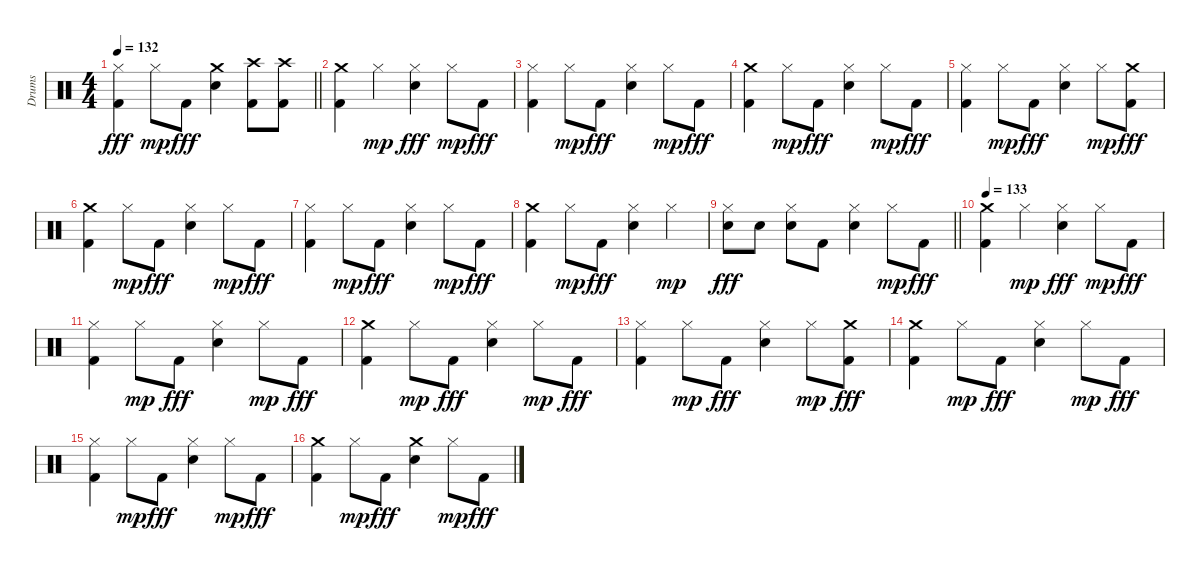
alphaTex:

\track ("Drums" "Drums") {instrument percussion}
\staff {score}
\articulation defaults
\ts (4 4)
\tempo 132
\clef neutral
\barLineRight lightlight
\ks c
("Hi-Hat (closed)" "Kick (hit) 2").4{dy fff} "Hi-Hat (closed)".8{dy mp} "Kick (hit) 2".8{dy fff} ("Crash medium (hit)" "Electric Snare (hit)").4 ("Crash high (hit)" "Kick (hit) 2").8 ("Crash high (hit)" "Kick (hit) 2").8 |
("Crash medium (hit)" "Kick (hit) 2").4 "Hi-Hat (closed)".4{dy mp} ("Hi-Hat (closed)" "Electric Snare (hit)").4{dy fff} "Hi-Hat (closed)".8{dy mp} "Kick (hit) 2".8{dy fff} |
("Hi-Hat (closed)" "Kick (hit) 2").4 "Hi-Hat (closed)".8{dy mp} "Kick (hit) 2".8{dy fff} ("Hi-Hat (closed)" "Electric Snare (hit)").4 "Hi-Hat (closed)".8{dy mp} "Kick (hit) 2".8{dy fff} |
("Crash medium (hit)" "Kick (hit) 2").4 "Hi-Hat (closed)".8{dy mp} "Kick (hit) 2".8{dy fff} ("Hi-Hat (closed)" "Electric Snare (hit)").4 "Hi-Hat (closed)".8{dy mp} "Kick (hit) 2".8{dy fff} |
("Hi-Hat (closed)" "Kick (hit) 2").4 "Hi-Hat (closed)".8{dy mp} "Kick (hit) 2".8{dy fff} ("Hi-Hat (closed)" "Electric Snare (hit)").4 "Hi-Hat (closed)".8{dy mp} ("Crash medium (hit)" "Kick (hit) 2").8{dy fff} |
("Crash medium (hit)" "Kick (hit) 2").4 "Hi-Hat (closed)".8{dy mp} "Kick (hit) 2".8{dy fff} ("Hi-Hat (closed)" "Electric Snare (hit)").4 "Hi-Hat (closed)".8{dy mp} "Kick (hit) 2".8{dy fff} |
("Hi-Hat (closed)" "Kick (hit) 2").4 "Hi-Hat (closed)".8{dy mp} "Kick (hit) 2".8{dy fff} ("Hi-Hat (closed)" "Electric Snare (hit)").4 "Hi-Hat (closed)".8{dy mp} "Kick (hit) 2".8{dy fff} |
("Crash medium (hit)" "Kick (hit) 2").4 "Hi-Hat (closed)".8{dy mp} "Kick (hit) 2".8{dy fff} ("Hi-Hat (closed)" "Electric Snare (hit)").4 "Hi-Hat (closed)".4{dy mp} |
\barLineRight lightlight
("Hi-Hat (closed)" "Electric Snare (hit)").8{dy fff} "Electric Snare (hit)".8 ("Hi-Hat (closed)" "Electric Snare (hit)").8 "Kick (hit) 2".8 ("Hi-Hat (closed)" "Electric Snare (hit)").4 "Hi-Hat (closed)".8{dy mp} "Kick (hit) 2".8{dy fff} |
\tempo 133
("Crash medium (hit)" "Kick (hit) 2").4 "Hi-Hat (closed)".4{dy mp} ("Hi-Hat (closed)" "Electric Snare (hit)").4{dy fff} "Hi-Hat (closed)".8{dy mp} "Kick (hit) 2".8{dy fff} |
("Hi-Hat (closed)" "Kick (hit) 2").4 "Hi-Hat (closed)".8{dy mp} "Kick (hit) 2".8{dy fff} ("Hi-Hat (closed)" "Electric Snare (hit)").4 "Hi-Hat (closed)".8{dy mp} "Kick (hit) 2".8{dy fff} |
("Crash medium (hit)" "Kick (hit) 2").4 "Hi-Hat (closed)".8{dy mp} "Kick (hit) 2".8{dy fff} ("Hi-Hat (closed)" "Electric Snare (hit)").4 "Hi-Hat (closed)".8{dy mp} "Kick (hit) 2".8{dy fff} |
("Hi-Hat (closed)" "Kick (hit) 2").4 "Hi-Hat (closed)".8{dy mp} "Kick (hit) 2".8{dy fff} ("Hi-Hat (closed)" "Electric Snare (hit)").4 "Hi-Hat (closed)".8{dy mp} ("Crash medium (hit)" "Kick (hit) 2").8{dy fff} |
("Crash medium (hit)" "Kick (hit) 2").4 "Hi-Hat (closed)".8{dy mp} "Kick (hit) 2".8{dy fff} ("Hi-Hat (closed)" "Electric Snare (hit)").4 "Hi-Hat (closed)".8{dy mp} "Kick (hit) 2".8{dy fff} |
("Hi-Hat (closed)" "Kick (hit) 2").4 "Hi-Hat (closed)".8{dy mp} "Kick (hit) 2".8{dy fff} ("Hi-Hat (closed)" "Electric Snare (hit)").4 "Hi-Hat (closed)".8{dy mp} "Kick (hit) 2".8{dy fff} |
("Crash medium (hit)" "Kick (hit) 2").4 "Hi-Hat (closed)".8{dy mp} "Kick (hit) 2".8{dy fff} ("Crash medium (hit)" "Electric Snare (hit)").4 "Hi-Hat (closed)".8{dy mp} "Kick (hit) 2".8{dy fff}
